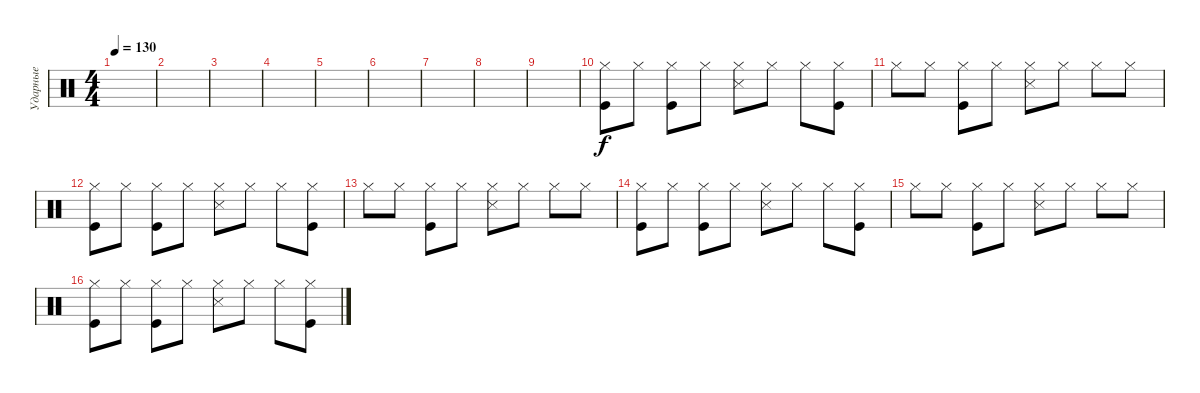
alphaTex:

\track ("Ударные" "Ударные") {instrument percussion}
\staff {score}
\articulation defaults
\ts (4 4)
\tempo 130
\clef neutral
\ks c
|
|
|
|
|
|
|
|
|
("Hi-Hat (closed)" "Kick (hit)").8 "Hi-Hat (closed)".8 ("Hi-Hat (closed)" "Kick (hit)").8 "Hi-Hat (closed)".8 ("Hi-Hat (closed)" "Snare (side stick) 3").8 "Hi-Hat (closed)".8 "Hi-Hat (closed)".8 ("Hi-Hat (closed)" "Kick (hit)").8 |
"Hi-Hat (closed)".8 "Hi-Hat (closed)".8 ("Hi-Hat (closed)" "Kick (hit)").8 "Hi-Hat (closed)".8 ("Hi-Hat (closed)" "Snare (side stick) 3").8 "Hi-Hat (closed)".8 "Hi-Hat (closed)".8 "Hi-Hat (closed)".8 |
("Hi-Hat (closed)" "Kick (hit)").8 "Hi-Hat (closed)".8 ("Hi-Hat (closed)" "Kick (hit)").8 "Hi-Hat (closed)".8 ("Hi-Hat (closed)" "Snare (side stick) 3").8 "Hi-Hat (closed)".8 "Hi-Hat (closed)".8 ("Hi-Hat (closed)" "Kick (hit)").8 |
"Hi-Hat (closed)".8 "Hi-Hat (closed)".8 ("Hi-Hat (closed)" "Kick (hit)").8 "Hi-Hat (closed)".8 ("Hi-Hat (closed)" "Snare (side stick) 3").8 "Hi-Hat (closed)".8 "Hi-Hat (closed)".8 "Hi-Hat (closed)".8 |
("Hi-Hat (closed)" "Kick (hit)").8 "Hi-Hat (closed)".8 ("Hi-Hat (closed)" "Kick (hit)").8 "Hi-Hat (closed)".8 ("Hi-Hat (closed)" "Snare (side stick) 3").8 "Hi-Hat (closed)".8 "Hi-Hat (closed)".8 ("Hi-Hat (closed)" "Kick (hit)").8 |
"Hi-Hat (closed)".8 "Hi-Hat (closed)".8 ("Hi-Hat (closed)" "Kick (hit)").8 "Hi-Hat (closed)".8 ("Hi-Hat (closed)" "Snare (side stick) 3").8 "Hi-Hat (closed)".8 "Hi-Hat (closed)".8 "Hi-Hat (closed)".8 |
("Hi-Hat (closed)" "Kick (hit)").8 "Hi-Hat (closed)".8 ("Hi-Hat (closed)" "Kick (hit)").8 "Hi-Hat (closed)".8 ("Hi-Hat (closed)" "Snare (side stick) 3").8 "Hi-Hat (closed)".8 "Hi-Hat (closed)".8 ("Hi-Hat (closed)" "Kick (hit)").8
